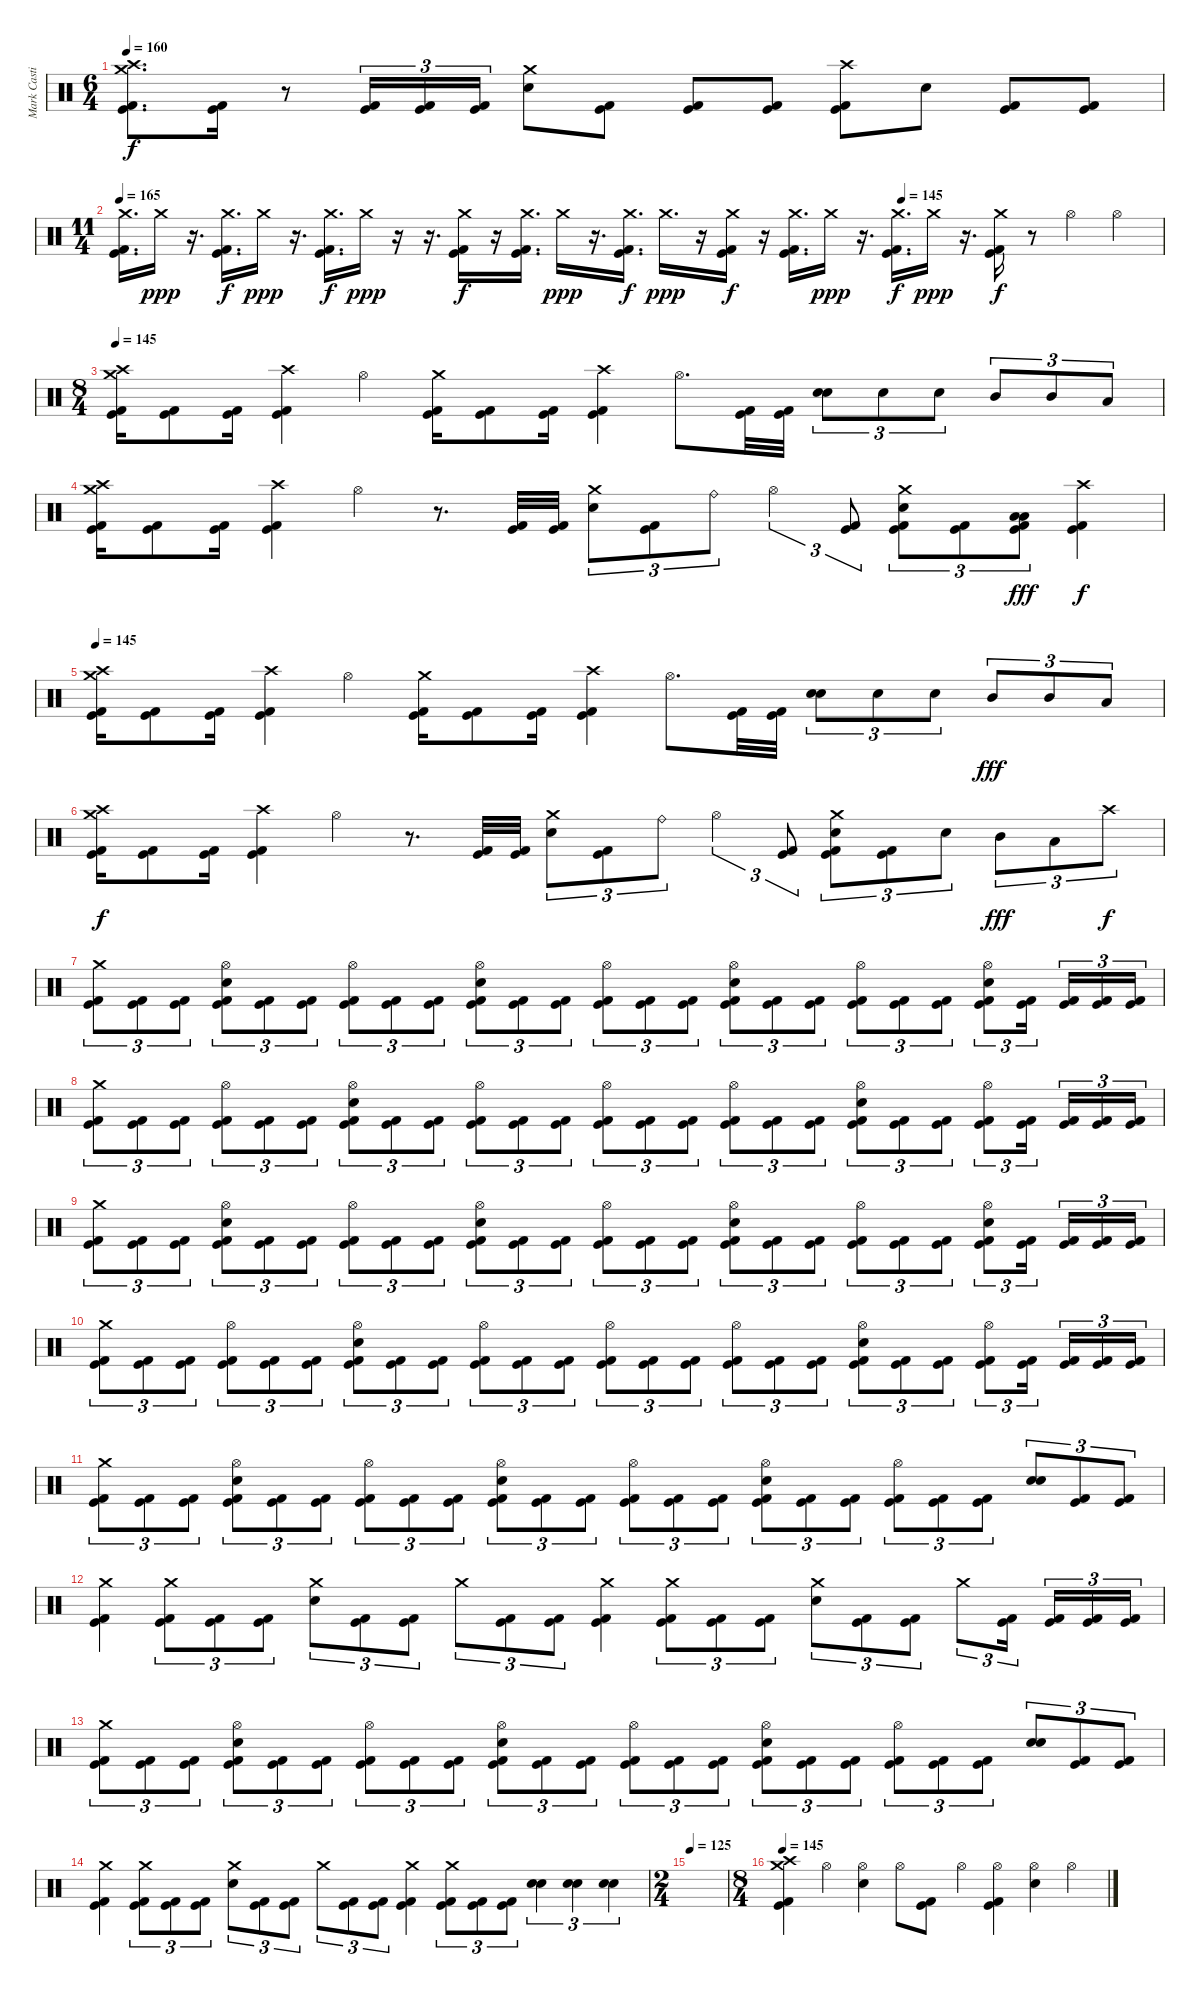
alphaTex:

\track ("Mark Castillo" "Mark Casti") {instrument percussion}
\staff {score}
\articulation defaults
\ts (6 4)
\tempo 160
\clef neutral
\ks c
("Crash medium (hit)" "Crash high (hit)" "Kick (hit)" "Kick (hit) 2").8{d dy f} ("Kick (hit)" "Kick (hit) 2").16 r.8 ("Kick (hit)" "Kick (hit) 2").16{tu (3 2)} ("Kick (hit)" "Kick (hit) 2").16{tu (3 2)} ("Kick (hit)" "Kick (hit) 2").16{tu (3 2)} ("Crash medium (hit)" "Electric Snare (hit)").8 ("Kick (hit)" "Kick (hit) 2").8 ("Kick (hit)" "Kick (hit) 2").8 ("Kick (hit)" "Kick (hit) 2").8 ("Crash high (hit)" "Kick (hit)" "Kick (hit) 2").8 "Electric Snare (hit)".8 ("Kick (hit)" "Kick (hit) 2").8 ("Kick (hit)" "Kick (hit) 2").8 |
\ts (11 4)
\tempo 165
\tempo (145 0.75)
("Crash medium (hit)" "Kick (hit)" "Kick (hit) 2").16{d} "Crash medium (hit)".16{dy ppp} r.16{d} ("Crash medium (hit)" "Kick (hit)" "Kick (hit) 2").16{d dy f} "Crash medium (hit)".16{dy ppp} r.16{d} ("Crash medium (hit)" "Kick (hit)" "Kick (hit) 2").16{d dy f} "Crash medium (hit)".16{dy ppp} r.16 r.16{d} ("Crash medium (hit)" "Kick (hit)" "Kick (hit) 2").16{dy f} r.16 ("Crash medium (hit)" "Kick (hit)" "Kick (hit) 2").16{d} "Crash medium (hit)".16{dy ppp} r.16{d} ("Crash medium (hit)" "Kick (hit)" "Kick (hit) 2").16{d dy f} "Crash medium (hit)".16{d dy ppp} r.16 ("Crash medium (hit)" "Kick (hit)" "Kick (hit) 2").16{dy f} r.16 ("Crash medium (hit)" "Kick (hit)" "Kick (hit) 2").16{d} "Crash medium (hit)".16{dy ppp} r.16{d} ("Crash medium (hit)" "Kick (hit)" "Kick (hit) 2").16{d dy f} "Crash medium (hit)".16{dy ppp} r.16{d} ("Crash medium (hit)" "Kick (hit)" "Kick (hit) 2").16{dy f} r.8 "Hi-Hat (open)".4 "Hi-Hat (open)".4 |
\ts (8 4)
\tempo 145
("Crash medium (hit)" "Crash high (hit)" "Kick (hit)" "Kick (hit) 2").16 ("Kick (hit)" "Kick (hit) 2").8 ("Kick (hit)" "Kick (hit) 2").16 ("Crash high (hit)" "Kick (hit)" "Kick (hit) 2").4 "Hi-Hat (open)".4 ("Crash medium (hit)" "Kick (hit)" "Kick (hit) 2").16 ("Kick (hit)" "Kick (hit) 2").8 ("Kick (hit)" "Kick (hit) 2").16 ("Crash high (hit)" "Kick (hit)" "Kick (hit) 2").4 "Hi-Hat (open)".8{d} ("Kick (hit)" "Kick (hit) 2").32 ("Kick (hit)" "Kick (hit) 2").32 ("Electric Snare (hit)" "Electric Snare (hit)").8{tu (3 2) bu 240} "Electric Snare (hit)".8{tu (3 2)} "Electric Snare (hit)".8{tu (3 2)} "Mid Tom (hit)".8{tu (3 2)} "Mid Tom (hit)".8{tu (3 2)} "Low Tom (hit)".8{tu (3 2)} |
("Crash medium (hit)" "Crash high (hit)" "Kick (hit)" "Kick (hit) 2").16 ("Kick (hit)" "Kick (hit) 2").8 ("Kick (hit)" "Kick (hit) 2").16 ("Crash high (hit)" "Kick (hit)" "Kick (hit) 2").4 "Hi-Hat (open)".4 r.8{d} ("Kick (hit)" "Kick (hit) 2").32 ("Kick (hit)" "Kick (hit) 2").32 ("Crash medium (hit)" "Electric Snare (hit)").8{tu (3 2)} ("Kick (hit)" "Kick (hit) 2").8{tu (3 2)} "Ride (bell)".8{tu (3 2)} "Hi-Hat (open)".4{tu (3 2)} ("Kick (hit)" "Kick (hit) 2").8{tu (3 2)} ("Crash medium (hit)" "Electric Snare (hit)" "Kick (hit)" "Kick (hit) 2").8{tu (3 2)} ("Kick (hit)" "Kick (hit) 2").8{tu (3 2)} ("Low Tom (hit)" "Low Tom (hit)" "Kick (hit)" "Kick (hit) 2").8{tu (3 2) dy fff} ("Crash high (hit)" "Kick (hit)" "Kick (hit) 2").4{dy f} |
\tempo 145
("Crash medium (hit)" "Crash high (hit)" "Kick (hit)" "Kick (hit) 2").16 ("Kick (hit)" "Kick (hit) 2").8 ("Kick (hit)" "Kick (hit) 2").16 ("Crash high (hit)" "Kick (hit)" "Kick (hit) 2").4 "Hi-Hat (open)".4 ("Crash medium (hit)" "Kick (hit)" "Kick (hit) 2").16 ("Kick (hit)" "Kick (hit) 2").8 ("Kick (hit)" "Kick (hit) 2").16 ("Crash high (hit)" "Kick (hit)" "Kick (hit) 2").4 "Hi-Hat (open)".8{d} ("Kick (hit)" "Kick (hit) 2").32 ("Kick (hit)" "Kick (hit) 2").32 ("Electric Snare (hit)" "Electric Snare (hit)").8{tu (3 2) bu 240} "Electric Snare (hit)".8{tu (3 2)} "Electric Snare (hit)".8{tu (3 2)} "Mid Tom (hit)".8{tu (3 2) dy fff} "Mid Tom (hit)".8{tu (3 2)} "Low Tom (hit)".8{tu (3 2)} |
("Crash medium (hit)" "Crash high (hit)" "Kick (hit)" "Kick (hit) 2").16{dy f} ("Kick (hit)" "Kick (hit) 2").8 ("Kick (hit)" "Kick (hit) 2").16 ("Crash high (hit)" "Kick (hit)" "Kick (hit) 2").4 "Hi-Hat (open)".4 r.8{d} ("Kick (hit)" "Kick (hit) 2").32 ("Kick (hit)" "Kick (hit) 2").32 ("Crash medium (hit)" "Electric Snare (hit)").8{tu (3 2)} ("Kick (hit)" "Kick (hit) 2").8{tu (3 2)} "Ride (bell)".8{tu (3 2)} "Hi-Hat (open)".4{tu (3 2)} ("Kick (hit)" "Kick (hit) 2").8{tu (3 2)} ("Crash medium (hit)" "Electric Snare (hit)" "Kick (hit)" "Kick (hit) 2").8{tu (3 2)} ("Kick (hit)" "Kick (hit) 2").8{tu (3 2)} "Electric Snare (hit)".8{tu (3 2)} "Mid Tom (hit)".8{tu (3 2) dy fff} "Low Tom (hit)".8{tu (3 2)} "Crash high (hit)".8{tu (3 2) dy f} |
("Crash medium (hit)" "Kick (hit)" "Kick (hit) 2").8{tu (3 2)} ("Kick (hit)" "Kick (hit) 2").8{tu (3 2)} ("Kick (hit)" "Kick (hit) 2").8{tu (3 2)} ("Hi-Hat (open)" "Electric Snare (hit)" "Kick (hit)" "Kick (hit) 2").8{tu (3 2)} ("Kick (hit)" "Kick (hit) 2").8{tu (3 2)} ("Kick (hit)" "Kick (hit) 2").8{tu (3 2)} ("Hi-Hat (open)" "Kick (hit)" "Kick (hit) 2").8{tu (3 2)} ("Kick (hit)" "Kick (hit) 2").8{tu (3 2)} ("Kick (hit)" "Kick (hit) 2").8{tu (3 2)} ("Hi-Hat (open)" "Electric Snare (hit)" "Kick (hit)" "Kick (hit) 2").8{tu (3 2)} ("Kick (hit)" "Kick (hit) 2").8{tu (3 2)} ("Kick (hit)" "Kick (hit) 2").8{tu (3 2)} ("Hi-Hat (open)" "Kick (hit)" "Kick (hit) 2").8{tu (3 2)} ("Kick (hit)" "Kick (hit) 2").8{tu (3 2)} ("Kick (hit)" "Kick (hit) 2").8{tu (3 2)} ("Hi-Hat (open)" "Electric Snare (hit)" "Kick (hit)" "Kick (hit) 2").8{tu (3 2)} ("Kick (hit)" "Kick (hit) 2").8{tu (3 2)} ("Kick (hit)" "Kick (hit) 2").8{tu (3 2)} ("Hi-Hat (open)" "Kick (hit)" "Kick (hit) 2").8{tu (3 2)} ("Kick (hit)" "Kick (hit) 2").8{tu (3 2)} ("Kick (hit)" "Kick (hit) 2").8{tu (3 2)} ("Hi-Hat (open)" "Electric Snare (hit)" "Kick (hit)" "Kick (hit) 2").8{tu (3 2)} ("Kick (hit)" "Kick (hit) 2").16{tu (3 2) beam splitsecondary} ("Kick (hit)" "Kick (hit) 2").16{tu (3 2)} ("Kick (hit)" "Kick (hit) 2").16{tu (3 2)} ("Kick (hit)" "Kick (hit) 2").16{tu (3 2)} |
("Crash medium (hit)" "Kick (hit)" "Kick (hit) 2").8{tu (3 2)} ("Kick (hit)" "Kick (hit) 2").8{tu (3 2)} ("Kick (hit)" "Kick (hit) 2").8{tu (3 2)} ("Hi-Hat (open)" "Kick (hit)" "Kick (hit) 2").8{tu (3 2)} ("Kick (hit)" "Kick (hit) 2").8{tu (3 2)} ("Kick (hit)" "Kick (hit) 2").8{tu (3 2)} ("Hi-Hat (open)" "Electric Snare (hit)" "Kick (hit)" "Kick (hit) 2").8{tu (3 2)} ("Kick (hit)" "Kick (hit) 2").8{tu (3 2)} ("Kick (hit)" "Kick (hit) 2").8{tu (3 2)} ("Hi-Hat (open)" "Kick (hit)" "Kick (hit) 2").8{tu (3 2)} ("Kick (hit)" "Kick (hit) 2").8{tu (3 2)} ("Kick (hit)" "Kick (hit) 2").8{tu (3 2)} ("Hi-Hat (open)" "Kick (hit)" "Kick (hit) 2").8{tu (3 2)} ("Kick (hit)" "Kick (hit) 2").8{tu (3 2)} ("Kick (hit)" "Kick (hit) 2").8{tu (3 2)} ("Hi-Hat (open)" "Kick (hit)" "Kick (hit) 2").8{tu (3 2)} ("Kick (hit)" "Kick (hit) 2").8{tu (3 2)} ("Kick (hit)" "Kick (hit) 2").8{tu (3 2)} ("Hi-Hat (open)" "Electric Snare (hit)" "Kick (hit)" "Kick (hit) 2").8{tu (3 2)} ("Kick (hit)" "Kick (hit) 2").8{tu (3 2)} ("Kick (hit)" "Kick (hit) 2").8{tu (3 2)} ("Hi-Hat (open)" "Kick (hit)" "Kick (hit) 2").8{tu (3 2)} ("Kick (hit)" "Kick (hit) 2").16{tu (3 2) beam splitsecondary} ("Kick (hit)" "Kick (hit) 2").16{tu (3 2)} ("Kick (hit)" "Kick (hit) 2").16{tu (3 2)} ("Kick (hit)" "Kick (hit) 2").16{tu (3 2)} |
("Crash medium (hit)" "Kick (hit)" "Kick (hit) 2").8{tu (3 2)} ("Kick (hit)" "Kick (hit) 2").8{tu (3 2)} ("Kick (hit)" "Kick (hit) 2").8{tu (3 2)} ("Hi-Hat (open)" "Electric Snare (hit)" "Kick (hit)" "Kick (hit) 2").8{tu (3 2)} ("Kick (hit)" "Kick (hit) 2").8{tu (3 2)} ("Kick (hit)" "Kick (hit) 2").8{tu (3 2)} ("Hi-Hat (open)" "Kick (hit)" "Kick (hit) 2").8{tu (3 2)} ("Kick (hit)" "Kick (hit) 2").8{tu (3 2)} ("Kick (hit)" "Kick (hit) 2").8{tu (3 2)} ("Hi-Hat (open)" "Electric Snare (hit)" "Kick (hit)" "Kick (hit) 2").8{tu (3 2)} ("Kick (hit)" "Kick (hit) 2").8{tu (3 2)} ("Kick (hit)" "Kick (hit) 2").8{tu (3 2)} ("Hi-Hat (open)" "Kick (hit)" "Kick (hit) 2").8{tu (3 2)} ("Kick (hit)" "Kick (hit) 2").8{tu (3 2)} ("Kick (hit)" "Kick (hit) 2").8{tu (3 2)} ("Hi-Hat (open)" "Electric Snare (hit)" "Kick (hit)" "Kick (hit) 2").8{tu (3 2)} ("Kick (hit)" "Kick (hit) 2").8{tu (3 2)} ("Kick (hit)" "Kick (hit) 2").8{tu (3 2)} ("Hi-Hat (open)" "Kick (hit)" "Kick (hit) 2").8{tu (3 2)} ("Kick (hit)" "Kick (hit) 2").8{tu (3 2)} ("Kick (hit)" "Kick (hit) 2").8{tu (3 2)} ("Hi-Hat (open)" "Electric Snare (hit)" "Kick (hit)" "Kick (hit) 2").8{tu (3 2)} ("Kick (hit)" "Kick (hit) 2").16{tu (3 2) beam splitsecondary} ("Kick (hit)" "Kick (hit) 2").16{tu (3 2)} ("Kick (hit)" "Kick (hit) 2").16{tu (3 2)} ("Kick (hit)" "Kick (hit) 2").16{tu (3 2)} |
("Crash medium (hit)" "Kick (hit)" "Kick (hit) 2").8{tu (3 2)} ("Kick (hit)" "Kick (hit) 2").8{tu (3 2)} ("Kick (hit)" "Kick (hit) 2").8{tu (3 2)} ("Hi-Hat (open)" "Kick (hit)" "Kick (hit) 2").8{tu (3 2)} ("Kick (hit)" "Kick (hit) 2").8{tu (3 2)} ("Kick (hit)" "Kick (hit) 2").8{tu (3 2)} ("Hi-Hat (open)" "Electric Snare (hit)" "Kick (hit)" "Kick (hit) 2").8{tu (3 2)} ("Kick (hit)" "Kick (hit) 2").8{tu (3 2)} ("Kick (hit)" "Kick (hit) 2").8{tu (3 2)} ("Hi-Hat (open)" "Kick (hit)" "Kick (hit) 2").8{tu (3 2)} ("Kick (hit)" "Kick (hit) 2").8{tu (3 2)} ("Kick (hit)" "Kick (hit) 2").8{tu (3 2)} ("Hi-Hat (open)" "Kick (hit)" "Kick (hit) 2").8{tu (3 2)} ("Kick (hit)" "Kick (hit) 2").8{tu (3 2)} ("Kick (hit)" "Kick (hit) 2").8{tu (3 2)} ("Hi-Hat (open)" "Kick (hit)" "Kick (hit) 2").8{tu (3 2)} ("Kick (hit)" "Kick (hit) 2").8{tu (3 2)} ("Kick (hit)" "Kick (hit) 2").8{tu (3 2)} ("Hi-Hat (open)" "Electric Snare (hit)" "Kick (hit)" "Kick (hit) 2").8{tu (3 2)} ("Kick (hit)" "Kick (hit) 2").8{tu (3 2)} ("Kick (hit)" "Kick (hit) 2").8{tu (3 2)} ("Hi-Hat (open)" "Kick (hit)" "Kick (hit) 2").8{tu (3 2)} ("Kick (hit)" "Kick (hit) 2").16{tu (3 2) beam splitsecondary} ("Kick (hit)" "Kick (hit) 2").16{tu (3 2)} ("Kick (hit)" "Kick (hit) 2").16{tu (3 2)} ("Kick (hit)" "Kick (hit) 2").16{tu (3 2)} |
("Crash medium (hit)" "Kick (hit)" "Kick (hit) 2").8{tu (3 2)} ("Kick (hit)" "Kick (hit) 2").8{tu (3 2)} ("Kick (hit)" "Kick (hit) 2").8{tu (3 2)} ("Hi-Hat (open)" "Electric Snare (hit)" "Kick (hit)" "Kick (hit) 2").8{tu (3 2)} ("Kick (hit)" "Kick (hit) 2").8{tu (3 2)} ("Kick (hit)" "Kick (hit) 2").8{tu (3 2)} ("Hi-Hat (open)" "Kick (hit)" "Kick (hit) 2").8{tu (3 2)} ("Kick (hit)" "Kick (hit) 2").8{tu (3 2)} ("Kick (hit)" "Kick (hit) 2").8{tu (3 2)} ("Hi-Hat (open)" "Electric Snare (hit)" "Kick (hit)" "Kick (hit) 2").8{tu (3 2)} ("Kick (hit)" "Kick (hit) 2").8{tu (3 2)} ("Kick (hit)" "Kick (hit) 2").8{tu (3 2)} ("Hi-Hat (open)" "Kick (hit)" "Kick (hit) 2").8{tu (3 2)} ("Kick (hit)" "Kick (hit) 2").8{tu (3 2)} ("Kick (hit)" "Kick (hit) 2").8{tu (3 2)} ("Hi-Hat (open)" "Electric Snare (hit)" "Kick (hit)" "Kick (hit) 2").8{tu (3 2)} ("Kick (hit)" "Kick (hit) 2").8{tu (3 2)} ("Kick (hit)" "Kick (hit) 2").8{tu (3 2)} ("Hi-Hat (open)" "Kick (hit)" "Kick (hit) 2").8{tu (3 2)} ("Kick (hit)" "Kick (hit) 2").8{tu (3 2)} ("Kick (hit)" "Kick (hit) 2").8{tu (3 2)} ("Electric Snare (hit)" "Electric Snare (hit)").8{tu (3 2) bu 240} ("Kick (hit)" "Kick (hit) 2").8{tu (3 2)} ("Kick (hit)" "Kick (hit) 2").8{tu (3 2)} |
("Crash medium (hit)" "Kick (hit)" "Kick (hit) 2").4 ("Crash medium (hit)" "Kick (hit)" "Kick (hit) 2").8{tu (3 2)} ("Kick (hit)" "Kick (hit) 2").8{tu (3 2)} ("Kick (hit)" "Kick (hit) 2").8{tu (3 2)} ("Crash medium (hit)" "Electric Snare (hit)").8{tu (3 2)} ("Kick (hit)" "Kick (hit) 2").8{tu (3 2)} ("Kick (hit)" "Kick (hit) 2").8{tu (3 2)} "Crash medium (hit)".8{tu (3 2)} ("Kick (hit)" "Kick (hit) 2").8{tu (3 2)} ("Kick (hit)" "Kick (hit) 2").8{tu (3 2)} ("Crash medium (hit)" "Kick (hit)" "Kick (hit) 2").4 ("Crash medium (hit)" "Kick (hit)" "Kick (hit) 2").8{tu (3 2)} ("Kick (hit)" "Kick (hit) 2").8{tu (3 2)} ("Kick (hit)" "Kick (hit) 2").8{tu (3 2)} ("Crash medium (hit)" "Electric Snare (hit)").8{tu (3 2)} ("Kick (hit)" "Kick (hit) 2").8{tu (3 2)} ("Kick (hit)" "Kick (hit) 2").8{tu (3 2)} "Crash medium (hit)".8{tu (3 2)} ("Kick (hit)" "Kick (hit) 2").16{tu (3 2) beam splitsecondary} ("Kick (hit)" "Kick (hit) 2").16{tu (3 2)} ("Kick (hit)" "Kick (hit) 2").16{tu (3 2)} ("Kick (hit)" "Kick (hit) 2").16{tu (3 2)} |
("Crash medium (hit)" "Kick (hit)" "Kick (hit) 2").8{tu (3 2)} ("Kick (hit)" "Kick (hit) 2").8{tu (3 2)} ("Kick (hit)" "Kick (hit) 2").8{tu (3 2)} ("Hi-Hat (open)" "Electric Snare (hit)" "Kick (hit)" "Kick (hit) 2").8{tu (3 2)} ("Kick (hit)" "Kick (hit) 2").8{tu (3 2)} ("Kick (hit)" "Kick (hit) 2").8{tu (3 2)} ("Hi-Hat (open)" "Kick (hit)" "Kick (hit) 2").8{tu (3 2)} ("Kick (hit)" "Kick (hit) 2").8{tu (3 2)} ("Kick (hit)" "Kick (hit) 2").8{tu (3 2)} ("Hi-Hat (open)" "Electric Snare (hit)" "Kick (hit)" "Kick (hit) 2").8{tu (3 2)} ("Kick (hit)" "Kick (hit) 2").8{tu (3 2)} ("Kick (hit)" "Kick (hit) 2").8{tu (3 2)} ("Hi-Hat (open)" "Kick (hit)" "Kick (hit) 2").8{tu (3 2)} ("Kick (hit)" "Kick (hit) 2").8{tu (3 2)} ("Kick (hit)" "Kick (hit) 2").8{tu (3 2)} ("Hi-Hat (open)" "Electric Snare (hit)" "Kick (hit)" "Kick (hit) 2").8{tu (3 2)} ("Kick (hit)" "Kick (hit) 2").8{tu (3 2)} ("Kick (hit)" "Kick (hit) 2").8{tu (3 2)} ("Hi-Hat (open)" "Kick (hit)" "Kick (hit) 2").8{tu (3 2)} ("Kick (hit)" "Kick (hit) 2").8{tu (3 2)} ("Kick (hit)" "Kick (hit) 2").8{tu (3 2)} ("Electric Snare (hit)" "Electric Snare (hit)").8{tu (3 2) bu 240} ("Kick (hit)" "Kick (hit) 2").8{tu (3 2)} ("Kick (hit)" "Kick (hit) 2").8{tu (3 2)} |
("Crash medium (hit)" "Kick (hit)" "Kick (hit) 2").4 ("Crash medium (hit)" "Kick (hit)" "Kick (hit) 2").8{tu (3 2)} ("Kick (hit)" "Kick (hit) 2").8{tu (3 2)} ("Kick (hit)" "Kick (hit) 2").8{tu (3 2)} ("Crash medium (hit)" "Electric Snare (hit)").8{tu (3 2)} ("Kick (hit)" "Kick (hit) 2").8{tu (3 2)} ("Kick (hit)" "Kick (hit) 2").8{tu (3 2)} "Crash medium (hit)".8{tu (3 2)} ("Kick (hit)" "Kick (hit) 2").8{tu (3 2)} ("Kick (hit)" "Kick (hit) 2").8{tu (3 2)} ("Crash medium (hit)" "Kick (hit)" "Kick (hit) 2").4 ("Crash medium (hit)" "Kick (hit)" "Kick (hit) 2").8{tu (3 2)} ("Kick (hit)" "Kick (hit) 2").8{tu (3 2)} ("Kick (hit)" "Kick (hit) 2").8{tu (3 2)} ("Electric Snare (hit)" "Electric Snare (hit)").4{tu (3 2) bu 240} ("Electric Snare (hit)" "Electric Snare (hit)").4{tu (3 2) bu 120} ("Electric Snare (hit)" "Electric Snare (hit)").4{tu (3 2) bu 120} |
\ts (2 4)
\tempo 125
|
\ts (8 4)
\tempo 145
("Crash medium (hit)" "Crash high (hit)" "Kick (hit)" "Kick (hit) 2").4 "Hi-Hat (open)".4 ("Hi-Hat (open)" "Electric Snare (hit)").4 "Hi-Hat (open)".8 ("Kick (hit)" "Kick (hit) 2").8 "Hi-Hat (open)".4 ("Hi-Hat (open)" "Kick (hit)" "Kick (hit) 2").4 ("Hi-Hat (open)" "Electric Snare (hit)").4 "Hi-Hat (open)".4
